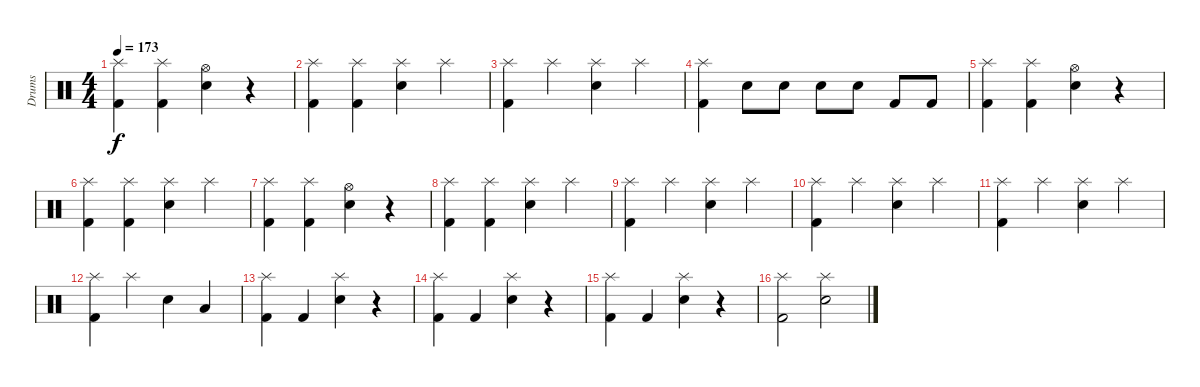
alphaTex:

\track ("Drums" "Drums") {instrument percussion}
\staff {score}
\articulation defaults
\ts (4 4)
\tempo 173
\clef neutral
\ks c
("Splash (hit)" "Kick (hit) 2").4{dy f} ("Splash (hit)" "Kick (hit) 2").4 ("Hi-Hat (open)" "Snare (hit) 2").4 r.4 |
("Splash (hit)" "Kick (hit) 2").4 ("Splash (hit)" "Kick (hit) 2").4 ("Splash (hit)" "Snare (hit) 2").4 "Splash (hit)".4 |
("Splash (hit)" "Kick (hit) 2").4 "Splash (hit)".4 ("Splash (hit)" "Snare (hit) 2").4 "Splash (hit)".4 |
("Splash (hit)" "Kick (hit) 2").4 "Snare (hit) 2".8 "Snare (hit) 2".8 "Snare (hit) 2".8 "Snare (hit) 2".8 "Kick (hit) 2".8 "Kick (hit) 2".8 |
("Splash (hit)" "Kick (hit) 2").4 ("Splash (hit)" "Kick (hit) 2").4 ("Hi-Hat (open)" "Snare (hit) 2").4 r.4 |
("Splash (hit)" "Kick (hit) 2").4 ("Splash (hit)" "Kick (hit) 2").4 ("Splash (hit)" "Snare (hit) 2").4 "Splash (hit)".4 |
("Splash (hit)" "Kick (hit) 2").4 ("Splash (hit)" "Kick (hit) 2").4 ("Hi-Hat (open)" "Snare (hit) 2").4 r.4 |
("Splash (hit)" "Kick (hit) 2").4 ("Splash (hit)" "Kick (hit) 2").4 ("Splash (hit)" "Snare (hit) 2").4 "Splash (hit)".4 |
("Splash (hit)" "Kick (hit) 2").4 "Splash (hit)".4 ("Splash (hit)" "Snare (hit) 2").4 "Splash (hit)".4 |
("Splash (hit)" "Kick (hit) 2").4 "Splash (hit)".4 ("Splash (hit)" "Snare (hit) 2").4 "Splash (hit)".4 |
("Splash (hit)" "Kick (hit) 2").4 "Splash (hit)".4 ("Splash (hit)" "Snare (hit) 2").4 "Splash (hit)".4 |
("Splash (hit)" "Kick (hit) 2").4 "Splash (hit)".4 "Snare (hit) 2".4 "Low Tom (hit)".4 |
("Splash (hit)" "Kick (hit) 2").4 "Kick (hit) 2".4 ("Splash (hit)" "Snare (hit) 2").4 r.4 |
("Splash (hit)" "Kick (hit) 2").4 "Kick (hit) 2".4 ("Splash (hit)" "Snare (hit) 2").4 r.4 |
("Splash (hit)" "Kick (hit) 2").4 "Kick (hit) 2".4 ("Splash (hit)" "Snare (hit) 2").4 r.4 |
("Splash (hit)" "Kick (hit) 2").2 ("Splash (hit)" "Snare (hit) 2").2
